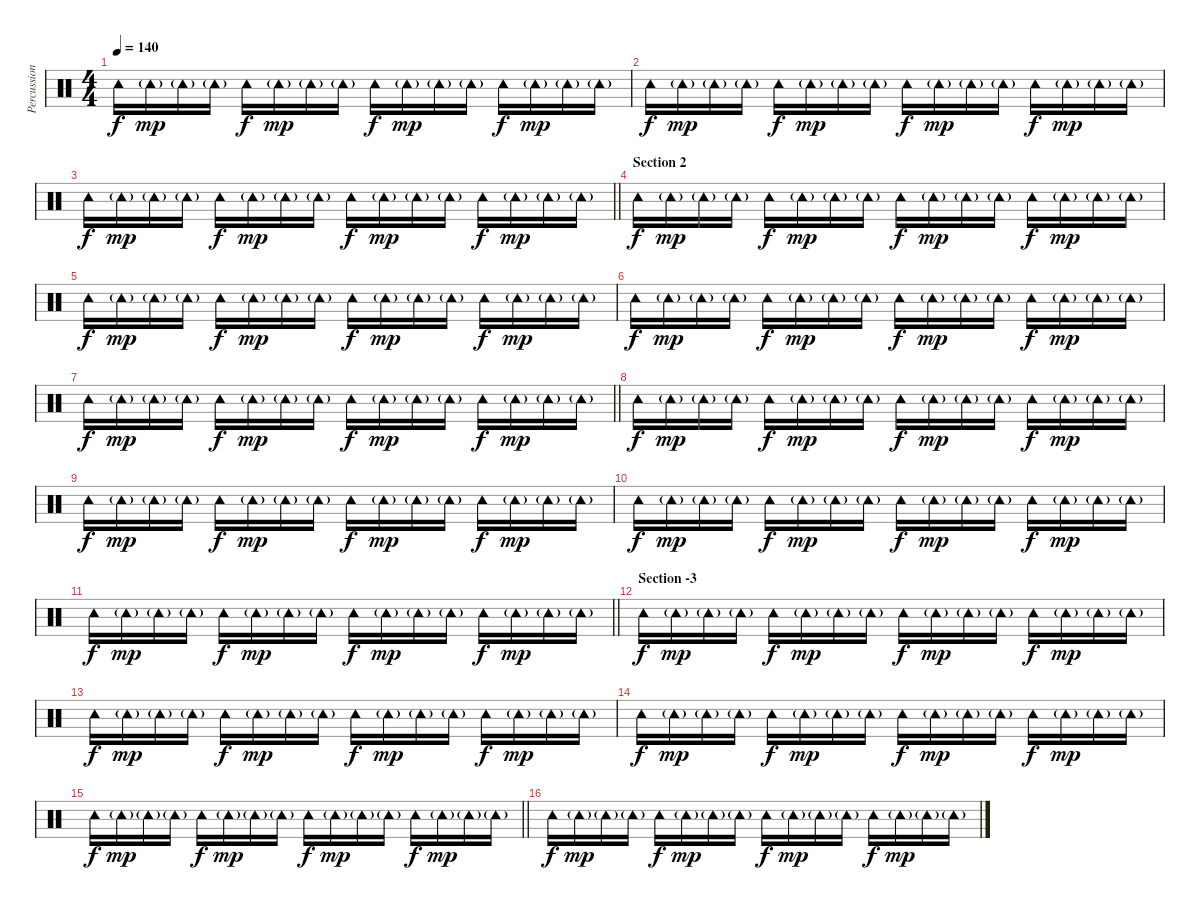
\track ("Percussion" "Percussion") {instrument percussion}
\staff {score}
\articulation defaults
\ts (4 4)
\tempo 140
\clef neutral
\ks c "Tambourine (hit)".16{dy f} "Tambourine (hit)"{g}.16{dy mp} "Tambourine (hit)"{g}.16 "Tambourine (hit)"{g}.16 "Tambourine (hit)".16{dy f} "Tambourine (hit)"{g}.16{dy mp} "Tambourine (hit)"{g}.16 "Tambourine (hit)"{g}.16 "Tambourine (hit)".16{dy f} "Tambourine (hit)"{g}.16{dy mp} "Tambourine (hit)"{g}.16 "Tambourine (hit)"{g}.16 "Tambourine (hit)".16{dy f} "Tambourine (hit)"{g}.16{dy mp} "Tambourine (hit)"{g}.16 "Tambourine (hit)"{g}.16
|
"Tambourine (hit)".16{dy f} "Tambourine (hit)"{g}.16{dy mp} "Tambourine (hit)"{g}.16 "Tambourine (hit)"{g}.16 "Tambourine (hit)".16{dy f} "Tambourine (hit)"{g}.16{dy mp} "Tambourine (hit)"{g}.16 "Tambourine (hit)"{g}.16 "Tambourine (hit)".16{dy f} "Tambourine (hit)"{g}.16{dy mp} "Tambourine (hit)"{g}.16 "Tambourine (hit)"{g}.16 "Tambourine (hit)".16{dy f} "Tambourine (hit)"{g}.16{dy mp} "Tambourine (hit)"{g}.16 "Tambourine (hit)"{g}.16 |
\barLineRight lightlight "Tambourine (hit)".16{dy f} "Tambourine (hit)"{g}.16{dy mp} "Tambourine (hit)"{g}.16 "Tambourine (hit)"{g}.16 "Tambourine (hit)".16{dy f} "Tambourine (hit)"{g}.16{dy mp} "Tambourine (hit)"{g}.16 "Tambourine (hit)"{g}.16 "Tambourine (hit)".16{dy f} "Tambourine (hit)"{g}.16{dy mp} "Tambourine (hit)"{g}.16 "Tambourine (hit)"{g}.16 "Tambourine (hit)".16{dy f} "Tambourine (hit)"{g}.16{dy mp} "Tambourine (hit)"{g}.16 "Tambourine (hit)"{g}.16
|
\section ("" "Section 2")
"Tambourine (hit)".16{dy f} "Tambourine (hit)"{g}.16{dy mp} "Tambourine (hit)"{g}.16 "Tambourine (hit)"{g}.16 "Tambourine (hit)".16{dy f} "Tambourine (hit)"{g}.16{dy mp} "Tambourine (hit)"{g}.16 "Tambourine (hit)"{g}.16 "Tambourine (hit)".16{dy f} "Tambourine (hit)"{g}.16{dy mp} "Tambourine (hit)"{g}.16 "Tambourine (hit)"{g}.16 "Tambourine (hit)".16{dy f} "Tambourine (hit)"{g}.16{dy mp} "Tambourine (hit)"{g}.16 "Tambourine (hit)"{g}.16 |
"Tambourine (hit)".16{dy f} "Tambourine (hit)"{g}.16{dy mp} "Tambourine (hit)"{g}.16 "Tambourine (hit)"{g}.16 "Tambourine (hit)".16{dy f} "Tambourine (hit)"{g}.16{dy mp} "Tambourine (hit)"{g}.16 "Tambourine (hit)"{g}.16 "Tambourine (hit)".16{dy f} "Tambourine (hit)"{g}.16{dy mp} "Tambourine (hit)"{g}.16 "Tambourine (hit)"{g}.16 "Tambourine (hit)".16{dy f} "Tambourine (hit)"{g}.16{dy mp} "Tambourine (hit)"{g}.16 "Tambourine (hit)"{g}.16 |
"Tambourine (hit)".16{dy f} "Tambourine (hit)"{g}.16{dy mp} "Tambourine (hit)"{g}.16 "Tambourine (hit)"{g}.16 "Tambourine (hit)".16{dy f} "Tambourine (hit)"{g}.16{dy mp} "Tambourine (hit)"{g}.16 "Tambourine (hit)"{g}.16 "Tambourine (hit)".16{dy f} "Tambourine (hit)"{g}.16{dy mp} "Tambourine (hit)"{g}.16 "Tambourine (hit)"{g}.16 "Tambourine (hit)".16{dy f} "Tambourine (hit)"{g}.16{dy mp} "Tambourine (hit)"{g}.16 "Tambourine (hit)"{g}.16 |
\barLineRight lightlight "Tambourine (hit)".16{dy f} "Tambourine (hit)"{g}.16{dy mp} "Tambourine (hit)"{g}.16 "Tambourine (hit)"{g}.16 "Tambourine (hit)".16{dy f} "Tambourine (hit)"{g}.16{dy mp} "Tambourine (hit)"{g}.16 "Tambourine (hit)"{g}.16 "Tambourine (hit)".16{dy f} "Tambourine (hit)"{g}.16{dy mp} "Tambourine (hit)"{g}.16 "Tambourine (hit)"{g}.16 "Tambourine (hit)".16{dy f} "Tambourine (hit)"{g}.16{dy mp} "Tambourine (hit)"{g}.16 "Tambourine (hit)"{g}.16
|
"Tambourine (hit)".16{dy f} "Tambourine (hit)"{g}.16{dy mp} "Tambourine (hit)"{g}.16 "Tambourine (hit)"{g}.16 "Tambourine (hit)".16{dy f} "Tambourine (hit)"{g}.16{dy mp} "Tambourine (hit)"{g}.16 "Tambourine (hit)"{g}.16 "Tambourine (hit)".16{dy f} "Tambourine (hit)"{g}.16{dy mp} "Tambourine (hit)"{g}.16 "Tambourine (hit)"{g}.16 "Tambourine (hit)".16{dy f} "Tambourine (hit)"{g}.16{dy mp} "Tambourine (hit)"{g}.16 "Tambourine (hit)"{g}.16 |
"Tambourine (hit)".16{dy f} "Tambourine (hit)"{g}.16{dy mp} "Tambourine (hit)"{g}.16 "Tambourine (hit)"{g}.16 "Tambourine (hit)".16{dy f} "Tambourine (hit)"{g}.16{dy mp} "Tambourine (hit)"{g}.16 "Tambourine (hit)"{g}.16 "Tambourine (hit)".16{dy f} "Tambourine (hit)"{g}.16{dy mp} "Tambourine (hit)"{g}.16 "Tambourine (hit)"{g}.16 "Tambourine (hit)".16{dy f} "Tambourine (hit)"{g}.16{dy mp} "Tambourine (hit)"{g}.16 "Tambourine (hit)"{g}.16 |
"Tambourine (hit)".16{dy f} "Tambourine (hit)"{g}.16{dy mp} "Tambourine (hit)"{g}.16 "Tambourine (hit)"{g}.16 "Tambourine (hit)".16{dy f} "Tambourine (hit)"{g}.16{dy mp} "Tambourine (hit)"{g}.16 "Tambourine (hit)"{g}.16 "Tambourine (hit)".16{dy f} "Tambourine (hit)"{g}.16{dy mp} "Tambourine (hit)"{g}.16 "Tambourine (hit)"{g}.16 "Tambourine (hit)".16{dy f} "Tambourine (hit)"{g}.16{dy mp} "Tambourine (hit)"{g}.16 "Tambourine (hit)"{g}.16 |
\barLineRight lightlight "Tambourine (hit)".16{dy f} "Tambourine (hit)"{g}.16{dy mp} "Tambourine (hit)"{g}.16 "Tambourine (hit)"{g}.16 "Tambourine (hit)".16{dy f} "Tambourine (hit)"{g}.16{dy mp} "Tambourine (hit)"{g}.16 "Tambourine (hit)"{g}.16 "Tambourine (hit)".16{dy f} "Tambourine (hit)"{g}.16{dy mp} "Tambourine (hit)"{g}.16 "Tambourine (hit)"{g}.16 "Tambourine (hit)".16{dy f} "Tambourine (hit)"{g}.16{dy mp} "Tambourine (hit)"{g}.16 "Tambourine (hit)"{g}.16
|
\section ("" "Section -3")
"Tambourine (hit)".16{dy f} "Tambourine (hit)"{g}.16{dy mp} "Tambourine (hit)"{g}.16 "Tambourine (hit)"{g}.16 "Tambourine (hit)".16{dy f} "Tambourine (hit)"{g}.16{dy mp} "Tambourine (hit)"{g}.16 "Tambourine (hit)"{g}.16 "Tambourine (hit)".16{dy f} "Tambourine (hit)"{g}.16{dy mp} "Tambourine (hit)"{g}.16 "Tambourine (hit)"{g}.16 "Tambourine (hit)".16{dy f} "Tambourine (hit)"{g}.16{dy mp} "Tambourine (hit)"{g}.16 "Tambourine (hit)"{g}.16 |
"Tambourine (hit)".16{dy f} "Tambourine (hit)"{g}.16{dy mp} "Tambourine (hit)"{g}.16 "Tambourine (hit)"{g}.16 "Tambourine (hit)".16{dy f} "Tambourine (hit)"{g}.16{dy mp} "Tambourine (hit)"{g}.16 "Tambourine (hit)"{g}.16 "Tambourine (hit)".16{dy f} "Tambourine (hit)"{g}.16{dy mp} "Tambourine (hit)"{g}.16 "Tambourine (hit)"{g}.16 "Tambourine (hit)".16{dy f} "Tambourine (hit)"{g}.16{dy mp} "Tambourine (hit)"{g}.16 "Tambourine (hit)"{g}.16 |
"Tambourine (hit)".16{dy f} "Tambourine (hit)"{g}.16{dy mp} "Tambourine (hit)"{g}.16 "Tambourine (hit)"{g}.16 "Tambourine (hit)".16{dy f} "Tambourine (hit)"{g}.16{dy mp} "Tambourine (hit)"{g}.16 "Tambourine (hit)"{g}.16 "Tambourine (hit)".16{dy f} "Tambourine (hit)"{g}.16{dy mp} "Tambourine (hit)"{g}.16 "Tambourine (hit)"{g}.16 "Tambourine (hit)".16{dy f} "Tambourine (hit)"{g}.16{dy mp} "Tambourine (hit)"{g}.16 "Tambourine (hit)"{g}.16 |
\barLineRight lightlight "Tambourine (hit)".16{dy f} "Tambourine (hit)"{g}.16{dy mp} "Tambourine (hit)"{g}.16 "Tambourine (hit)"{g}.16 "Tambourine (hit)".16{dy f} "Tambourine (hit)"{g}.16{dy mp} "Tambourine (hit)"{g}.16 "Tambourine (hit)"{g}.16 "Tambourine (hit)".16{dy f} "Tambourine (hit)"{g}.16{dy mp} "Tambourine (hit)"{g}.16 "Tambourine (hit)"{g}.16 "Tambourine (hit)".16{dy f} "Tambourine (hit)"{g}.16{dy mp} "Tambourine (hit)"{g}.16 "Tambourine (hit)"{g}.16
|
"Tambourine (hit)".16{dy f} "Tambourine (hit)"{g}.16{dy mp} "Tambourine (hit)"{g}.16 "Tambourine (hit)"{g}.16 "Tambourine (hit)".16{dy f} "Tambourine (hit)"{g}.16{dy mp} "Tambourine (hit)"{g}.16 "Tambourine (hit)"{g}.16 "Tambourine (hit)".16{dy f} "Tambourine (hit)"{g}.16{dy mp} "Tambourine (hit)"{g}.16 "Tambourine (hit)"{g}.16 "Tambourine (hit)".16{dy f} "Tambourine (hit)"{g}.16{dy mp} "Tambourine (hit)"{g}.16 "Tambourine (hit)"{g}.16
